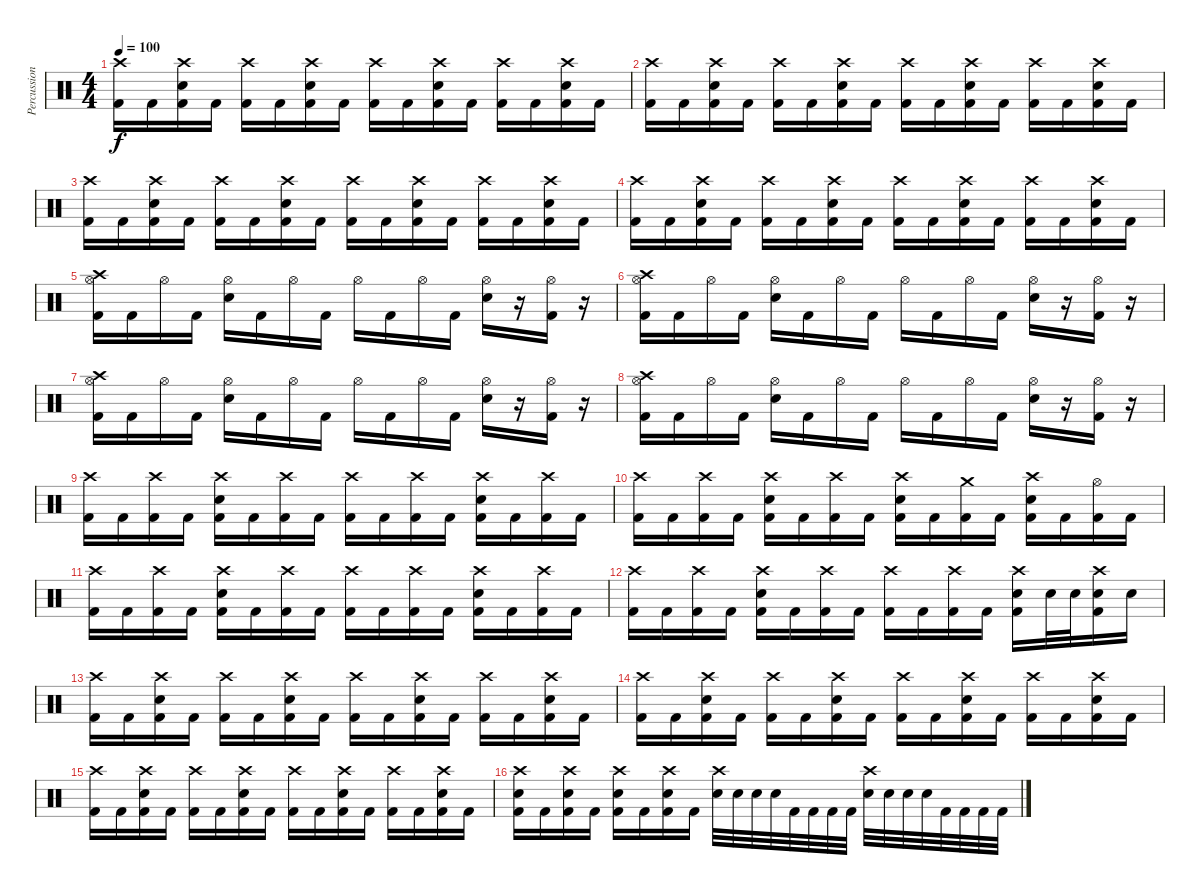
\track ("Percussion" "Percussion") {instrument percussion}
\staff {score}
\articulation defaults
\ts (4 4)
\tempo 100
\clef neutral
\ks c
("Crash high (hit)" "Kick (hit) 2").16{dy f} "Kick (hit) 2".16 ("Crash high (hit)" "Electric Snare (hit)" "Kick (hit) 2").16 "Kick (hit) 2".16 ("Crash high (hit)" "Kick (hit) 2").16 "Kick (hit) 2".16 ("Crash high (hit)" "Electric Snare (hit)" "Kick (hit) 2").16 "Kick (hit) 2".16 ("Crash high (hit)" "Kick (hit) 2").16 "Kick (hit) 2".16 ("Crash high (hit)" "Electric Snare (hit)" "Kick (hit) 2").16 "Kick (hit) 2".16 ("Crash high (hit)" "Kick (hit) 2").16 "Kick (hit) 2".16 ("Crash high (hit)" "Electric Snare (hit)" "Kick (hit) 2").16 "Kick (hit) 2".16 |
("Crash high (hit)" "Kick (hit) 2").16 "Kick (hit) 2".16 ("Crash high (hit)" "Electric Snare (hit)" "Kick (hit) 2").16 "Kick (hit) 2".16 ("Crash high (hit)" "Kick (hit) 2").16 "Kick (hit) 2".16 ("Crash high (hit)" "Electric Snare (hit)" "Kick (hit) 2").16 "Kick (hit) 2".16 ("Crash high (hit)" "Kick (hit) 2").16 "Kick (hit) 2".16 ("Crash high (hit)" "Electric Snare (hit)" "Kick (hit) 2").16 "Kick (hit) 2".16 ("Crash high (hit)" "Kick (hit) 2").16 "Kick (hit) 2".16 ("Crash high (hit)" "Electric Snare (hit)" "Kick (hit) 2").16 "Kick (hit) 2".16 |
("Crash high (hit)" "Kick (hit) 2").16 "Kick (hit) 2".16 ("Crash high (hit)" "Electric Snare (hit)" "Kick (hit) 2").16 "Kick (hit) 2".16 ("Crash high (hit)" "Kick (hit) 2").16 "Kick (hit) 2".16 ("Crash high (hit)" "Electric Snare (hit)" "Kick (hit) 2").16 "Kick (hit) 2".16 ("Crash high (hit)" "Kick (hit) 2").16 "Kick (hit) 2".16 ("Crash high (hit)" "Electric Snare (hit)" "Kick (hit) 2").16 "Kick (hit) 2".16 ("Crash high (hit)" "Kick (hit) 2").16 "Kick (hit) 2".16 ("Crash high (hit)" "Electric Snare (hit)" "Kick (hit) 2").16 "Kick (hit) 2".16 |
("Crash high (hit)" "Kick (hit) 2").16 "Kick (hit) 2".16 ("Crash high (hit)" "Electric Snare (hit)" "Kick (hit) 2").16 "Kick (hit) 2".16 ("Crash high (hit)" "Kick (hit) 2").16 "Kick (hit) 2".16 ("Crash high (hit)" "Electric Snare (hit)" "Kick (hit) 2").16 "Kick (hit) 2".16 ("Crash high (hit)" "Kick (hit) 2").16 "Kick (hit) 2".16 ("Crash high (hit)" "Electric Snare (hit)" "Kick (hit) 2").16 "Kick (hit) 2".16 ("Crash high (hit)" "Kick (hit) 2").16 "Kick (hit) 2".16 ("Crash high (hit)" "Electric Snare (hit)" "Kick (hit) 2").16 "Kick (hit) 2".16 |
("Hi-Hat (open)" "Crash high (hit)" "Kick (hit) 2").16 "Kick (hit) 2".16 "Hi-Hat (open)".16 "Kick (hit) 2".16 ("Hi-Hat (open)" "Electric Snare (hit)").16 "Kick (hit) 2".16 "Hi-Hat (open)".16 "Kick (hit) 2".16 "Hi-Hat (open)".16 "Kick (hit) 2".16 "Hi-Hat (open)".16 "Kick (hit) 2".16 ("Hi-Hat (open)" "Electric Snare (hit)").16 r.16 ("Hi-Hat (open)" "Kick (hit) 2").16 r.16 |
("Hi-Hat (open)" "Crash high (hit)" "Kick (hit) 2").16 "Kick (hit) 2".16 "Hi-Hat (open)".16 "Kick (hit) 2".16 ("Hi-Hat (open)" "Electric Snare (hit)").16 "Kick (hit) 2".16 "Hi-Hat (open)".16 "Kick (hit) 2".16 "Hi-Hat (open)".16 "Kick (hit) 2".16 "Hi-Hat (open)".16 "Kick (hit) 2".16 ("Hi-Hat (open)" "Electric Snare (hit)").16 r.16 ("Hi-Hat (open)" "Kick (hit) 2").16 r.16 |
("Hi-Hat (open)" "Crash high (hit)" "Kick (hit) 2").16 "Kick (hit) 2".16 "Hi-Hat (open)".16 "Kick (hit) 2".16 ("Hi-Hat (open)" "Electric Snare (hit)").16 "Kick (hit) 2".16 "Hi-Hat (open)".16 "Kick (hit) 2".16 "Hi-Hat (open)".16 "Kick (hit) 2".16 "Hi-Hat (open)".16 "Kick (hit) 2".16 ("Hi-Hat (open)" "Electric Snare (hit)").16 r.16 ("Hi-Hat (open)" "Kick (hit) 2").16 r.16 |
("Hi-Hat (open)" "Crash high (hit)" "Kick (hit) 2").16 "Kick (hit) 2".16 "Hi-Hat (open)".16 "Kick (hit) 2".16 ("Hi-Hat (open)" "Electric Snare (hit)").16 "Kick (hit) 2".16 "Hi-Hat (open)".16 "Kick (hit) 2".16 "Hi-Hat (open)".16 "Kick (hit) 2".16 "Hi-Hat (open)".16 "Kick (hit) 2".16 ("Hi-Hat (open)" "Electric Snare (hit)").16 r.16 ("Hi-Hat (open)" "Kick (hit) 2").16 r.16 |
("Crash high (hit)" "Kick (hit) 2").16 "Kick (hit) 2".16 ("Crash high (hit)" "Kick (hit) 2").16 "Kick (hit) 2".16 ("Crash high (hit)" "Electric Snare (hit)" "Kick (hit) 2").16 "Kick (hit) 2".16 ("Crash high (hit)" "Kick (hit) 2").16 "Kick (hit) 2".16 ("Crash high (hit)" "Kick (hit) 2").16 "Kick (hit) 2".16 ("Crash high (hit)" "Kick (hit) 2").16 "Kick (hit) 2".16 ("Crash high (hit)" "Electric Snare (hit)" "Kick (hit) 2").16 "Kick (hit) 2".16 ("Crash high (hit)" "Kick (hit) 2").16 "Kick (hit) 2".16 |
("Crash high (hit)" "Kick (hit) 2").16 "Kick (hit) 2".16 ("Crash high (hit)" "Kick (hit) 2").16 "Kick (hit) 2".16 ("Crash high (hit)" "Electric Snare (hit)" "Kick (hit) 2").16 "Kick (hit) 2".16 ("Crash high (hit)" "Kick (hit) 2").16 "Kick (hit) 2".16 ("Crash high (hit)" "Electric Snare (hit)" "Kick (hit) 2").16 "Kick (hit) 2".16 ("Crash medium (hit)" "Kick (hit) 2").16 "Kick (hit) 2".16 ("Crash high (hit)" "Electric Snare (hit)" "Kick (hit) 2").16 "Kick (hit) 2".16 ("Hi-Hat (open)" "Kick (hit) 2").16 "Kick (hit) 2".16 |
("Crash high (hit)" "Kick (hit) 2").16 "Kick (hit) 2".16 ("Crash high (hit)" "Kick (hit) 2").16 "Kick (hit) 2".16 ("Crash high (hit)" "Electric Snare (hit)" "Kick (hit) 2").16 "Kick (hit) 2".16 ("Crash high (hit)" "Kick (hit) 2").16 "Kick (hit) 2".16 ("Crash high (hit)" "Kick (hit) 2").16 "Kick (hit) 2".16 ("Crash high (hit)" "Kick (hit) 2").16 "Kick (hit) 2".16 ("Crash high (hit)" "Electric Snare (hit)" "Kick (hit) 2").16 "Kick (hit) 2".16 ("Crash high (hit)" "Kick (hit) 2").16 "Kick (hit) 2".16 |
("Crash high (hit)" "Kick (hit) 2").16 "Kick (hit) 2".16 ("Crash high (hit)" "Kick (hit) 2").16 "Kick (hit) 2".16 ("Crash high (hit)" "Electric Snare (hit)" "Kick (hit) 2").16 "Kick (hit) 2".16 ("Crash high (hit)" "Kick (hit) 2").16 "Kick (hit) 2".16 ("Crash high (hit)" "Kick (hit) 2").16 "Kick (hit) 2".16 ("Crash high (hit)" "Kick (hit) 2").16 "Kick (hit) 2".16 ("Crash high (hit)" "Electric Snare (hit)" "Kick (hit) 2").16 "Electric Snare (hit)".32 "Electric Snare (hit)".32 ("Crash high (hit)" "Electric Snare (hit)" "Kick (hit) 2").16 "Electric Snare (hit)".16 |
("Crash high (hit)" "Kick (hit) 2").16 "Kick (hit) 2".16 ("Crash high (hit)" "Electric Snare (hit)" "Kick (hit) 2").16 "Kick (hit) 2".16 ("Crash high (hit)" "Kick (hit) 2").16 "Kick (hit) 2".16 ("Crash high (hit)" "Electric Snare (hit)" "Kick (hit) 2").16 "Kick (hit) 2".16 ("Crash high (hit)" "Kick (hit) 2").16 "Kick (hit) 2".16 ("Crash high (hit)" "Electric Snare (hit)" "Kick (hit) 2").16 "Kick (hit) 2".16 ("Crash high (hit)" "Kick (hit) 2").16 "Kick (hit) 2".16 ("Crash high (hit)" "Electric Snare (hit)" "Kick (hit) 2").16 "Kick (hit) 2".16 |
("Crash high (hit)" "Kick (hit) 2").16 "Kick (hit) 2".16 ("Crash high (hit)" "Electric Snare (hit)" "Kick (hit) 2").16 "Kick (hit) 2".16 ("Crash high (hit)" "Kick (hit) 2").16 "Kick (hit) 2".16 ("Crash high (hit)" "Electric Snare (hit)" "Kick (hit) 2").16 "Kick (hit) 2".16 ("Crash high (hit)" "Kick (hit) 2").16 "Kick (hit) 2".16 ("Crash high (hit)" "Electric Snare (hit)" "Kick (hit) 2").16 "Kick (hit) 2".16 ("Crash high (hit)" "Kick (hit) 2").16 "Kick (hit) 2".16 ("Crash high (hit)" "Electric Snare (hit)" "Kick (hit) 2").16 "Kick (hit) 2".16 |
("Crash high (hit)" "Kick (hit) 2").16 "Kick (hit) 2".16 ("Crash high (hit)" "Electric Snare (hit)" "Kick (hit) 2").16 "Kick (hit) 2".16 ("Crash high (hit)" "Kick (hit) 2").16 "Kick (hit) 2".16 ("Crash high (hit)" "Electric Snare (hit)" "Kick (hit) 2").16 "Kick (hit) 2".16 ("Crash high (hit)" "Kick (hit) 2").16 "Kick (hit) 2".16 ("Crash high (hit)" "Electric Snare (hit)" "Kick (hit) 2").16 "Kick (hit) 2".16 ("Crash high (hit)" "Kick (hit) 2").16 "Kick (hit) 2".16 ("Crash high (hit)" "Electric Snare (hit)" "Kick (hit) 2").16 "Kick (hit) 2".16 |
("Crash high (hit)" "Electric Snare (hit)" "Kick (hit) 2").16 "Kick (hit) 2".16 ("Crash high (hit)" "Electric Snare (hit)" "Kick (hit) 2").16 "Kick (hit) 2".16 ("Crash high (hit)" "Electric Snare (hit)" "Kick (hit) 2").16 "Kick (hit) 2".16 ("Crash high (hit)" "Electric Snare (hit)" "Kick (hit) 2").16 "Kick (hit) 2".16 ("Crash high (hit)" "Electric Snare (hit)").32 "Electric Snare (hit)".32 "Electric Snare (hit)".32 "Electric Snare (hit)".32 "Kick (hit) 2".32 "Kick (hit) 2".32 "Kick (hit) 2".32 "Kick (hit) 2".32 ("Crash high (hit)" "Electric Snare (hit)").32 "Electric Snare (hit)".32 "Electric Snare (hit)".32 "Electric Snare (hit)".32 "Kick (hit) 2".32 "Kick (hit) 2".32 "Kick (hit) 2".32 "Kick (hit) 2".32
